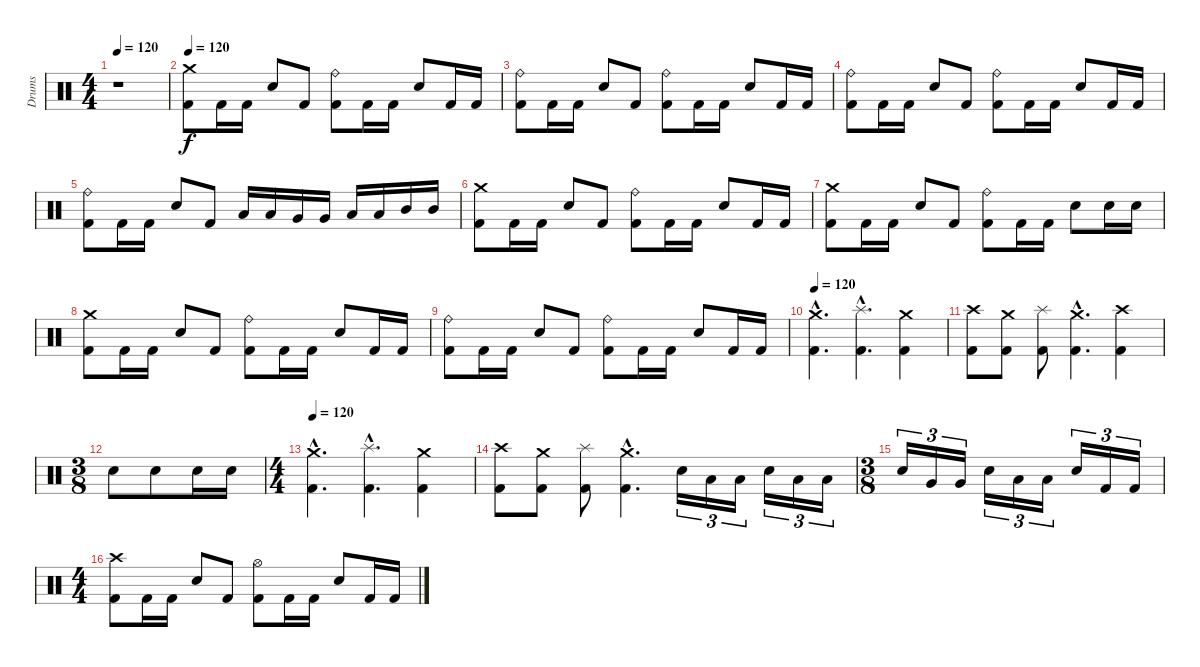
\track ("Drums" "Drums") {instrument percussion}
\staff {score}
\articulation defaults
\ts (4 4)
\tempo 120
\clef neutral
\ks c
r.1{dy f} |
\tempo 120
("Crash medium (hit)" "Kick (hit) 2").8 "Kick (hit) 2".16 "Kick (hit) 2".16 "Electric Snare (hit)".8 "Kick (hit) 2".8 ("Ride (bell)" "Kick (hit) 2").8 "Kick (hit) 2".16 "Kick (hit) 2".16 "Electric Snare (hit)".8 "Kick (hit) 2".16 "Kick (hit) 2".16 |
("Ride (bell)" "Kick (hit) 2").8 "Kick (hit) 2".16 "Kick (hit) 2".16 "Electric Snare (hit)".8 "Kick (hit) 2".8 ("Ride (bell)" "Kick (hit) 2").8 "Kick (hit) 2".16 "Kick (hit) 2".16 "Electric Snare (hit)".8 "Kick (hit) 2".16 "Kick (hit) 2".16 |
("Ride (bell)" "Kick (hit) 2").8 "Kick (hit) 2".16 "Kick (hit) 2".16 "Electric Snare (hit)".8 "Kick (hit) 2".8 ("Ride (bell)" "Kick (hit) 2").8 "Kick (hit) 2".16 "Kick (hit) 2".16 "Electric Snare (hit)".8 "Kick (hit) 2".16 "Kick (hit) 2".16 |
("Ride (bell)" "Kick (hit) 2").8 "Kick (hit) 2".16 "Kick (hit) 2".16 "Electric Snare (hit)".8 "Kick (hit) 2".8 "Low Floor Tom (hit)".16 "Low Floor Tom (hit)".16 "Very Low Tom (hit)".16 "Very Low Tom (hit)".16 "Low Tom (hit)".16 "Low Tom (hit)".16 "Mid Tom (hit)".16 "Mid Tom (hit)".16 |
("Crash medium (hit)" "Kick (hit) 2").8 "Kick (hit) 2".16 "Kick (hit) 2".16 "Electric Snare (hit)".8 "Kick (hit) 2".8 ("Ride (bell)" "Kick (hit) 2").8 "Kick (hit) 2".16 "Kick (hit) 2".16 "Electric Snare (hit)".8 "Kick (hit) 2".16 "Kick (hit) 2".16 |
("Crash medium (hit)" "Kick (hit) 2").8 "Kick (hit) 2".16 "Kick (hit) 2".16 "Electric Snare (hit)".8 "Kick (hit) 2".8 ("Ride (bell)" "Kick (hit) 2").8 "Kick (hit) 2".16 "Kick (hit) 2".16 "Electric Snare (hit)".8 "Electric Snare (hit)".16 "Electric Snare (hit)".16 |
("Crash medium (hit)" "Kick (hit) 2").8 "Kick (hit) 2".16 "Kick (hit) 2".16 "Electric Snare (hit)".8 "Kick (hit) 2".8 ("Ride (bell)" "Kick (hit) 2").8 "Kick (hit) 2".16 "Kick (hit) 2".16 "Electric Snare (hit)".8 "Kick (hit) 2".16 "Kick (hit) 2".16 |
("Ride (bell)" "Kick (hit) 2").8 "Kick (hit) 2".16 "Kick (hit) 2".16 "Electric Snare (hit)".8 "Kick (hit) 2".8 ("Ride (bell)" "Kick (hit) 2").8 "Kick (hit) 2".16 "Kick (hit) 2".16 "Electric Snare (hit)".8 "Kick (hit) 2".16 "Kick (hit) 2".16 |
\tempo 120
("Crash medium (hit)"{hac} "Kick (hit) 2"{hac}).4{d} ("Splash (hit)"{hac} "Kick (hit) 2"{hac}).4{d} ("Crash medium (hit)" "Kick (hit) 2").4 |
("Crash high (hit)" "Kick (hit) 2").8 ("Crash medium (hit)" "Kick (hit) 2").8 ("Splash (hit)" "Kick (hit) 2").8 ("Crash medium (hit)"{hac} "Kick (hit) 2"{hac}).4{d} ("Crash high (hit)" "Kick (hit) 2").4 |
\ts (3 8)
"Electric Snare (hit)".8 "Electric Snare (hit)".8 "Electric Snare (hit)".16 "Electric Snare (hit)".16 |
\ts (4 4)
\tempo 120
("Crash medium (hit)"{hac} "Kick (hit) 2"{hac}).4{d} ("Splash (hit)"{hac} "Kick (hit) 2"{hac}).4{d} ("Crash medium (hit)" "Kick (hit) 2").4 |
("Crash high (hit)" "Kick (hit) 2").8 ("Crash medium (hit)" "Kick (hit) 2").8 ("Splash (hit)" "Kick (hit) 2").8 ("Crash medium (hit)"{hac} "Kick (hit) 2"{hac}).4{d} "Electric Snare (hit)".16{tu (3 2)} "Low Tom (hit)".16{tu (3 2)} "Low Tom (hit)".16{tu (3 2)} "Electric Snare (hit)".16{tu (3 2)} "Low Tom (hit)".16{tu (3 2)} "Low Tom (hit)".16{tu (3 2)} |
\ts (3 8)
"Electric Snare (hit)".16{tu (3 2)} "Very Low Tom (hit)".16{tu (3 2)} "Very Low Tom (hit)".16{tu (3 2)} "Electric Snare (hit)".16{tu (3 2)} "Low Floor Tom (hit)".16{tu (3 2)} "Low Floor Tom (hit)".16{tu (3 2)} "Electric Snare (hit)".16{tu (3 2)} "Kick (hit) 2".16{tu (3 2)} "Kick (hit) 2".16{tu (3 2)} |
\ts (4 4)
("Crash high (hit)" "Kick (hit) 2").8 "Kick (hit) 2".16 "Kick (hit) 2".16 "Electric Snare (hit)".8 "Kick (hit) 2".8 ("Hi-Hat (open)" "Kick (hit) 2").8 "Kick (hit) 2".16 "Kick (hit) 2".16 "Electric Snare (hit)".8 "Kick (hit) 2".16 "Kick (hit) 2".16
